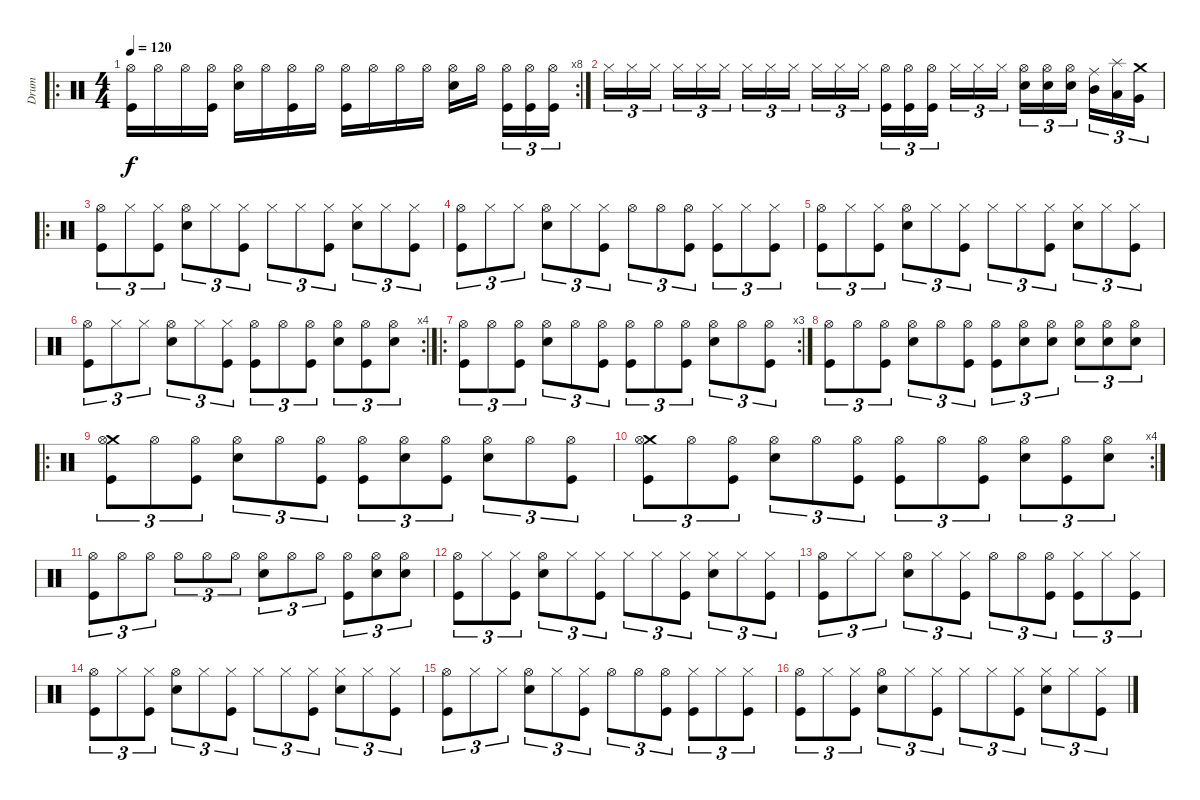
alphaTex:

\track ("Drum" "Drum") {instrument percussion}
\staff {score}
\articulation defaults
\ro
\rc 8
\ts (4 4)
\tempo 120
\clef neutral
\ks c
("Hi-Hat (open)" "Kick (hit)").16{dy f} "Hi-Hat (open)".16 "Hi-Hat (open)".16 ("Hi-Hat (open)" "Kick (hit)").16 ("Hi-Hat (open)" "Electric Snare (hit)").16 "Hi-Hat (open)".16 ("Hi-Hat (open)" "Kick (hit)").16 "Hi-Hat (open)".16 ("Hi-Hat (open)" "Kick (hit)").16 "Hi-Hat (open)".16 "Hi-Hat (open)".16 "Hi-Hat (open)".16 ("Hi-Hat (open)" "Electric Snare (hit)").16 "Hi-Hat (open)".16 ("Hi-Hat (open)" "Kick (hit)").16{tu (3 2)} ("Hi-Hat (open)" "Kick (hit)").16{tu (3 2)} ("Hi-Hat (open)" "Kick (hit)").16{tu (3 2)} |
"Hi-Hat (closed)".16{tu (3 2)} "Hi-Hat (closed)".16{tu (3 2)} "Hi-Hat (closed)".16{tu (3 2)} "Hi-Hat (closed)".16{tu (3 2)} "Hi-Hat (closed)".16{tu (3 2)} "Hi-Hat (closed)".16{tu (3 2)} "Hi-Hat (closed)".16{tu (3 2)} "Hi-Hat (closed)".16{tu (3 2)} "Hi-Hat (closed)".16{tu (3 2)} "Hi-Hat (closed)".16{tu (3 2)} "Hi-Hat (closed)".16{tu (3 2)} "Hi-Hat (closed)".16{tu (3 2)} ("Hi-Hat (open)" "Kick (hit)").16{tu (3 2)} ("Hi-Hat (open)" "Kick (hit)").16{tu (3 2)} ("Hi-Hat (open)" "Kick (hit)").16{tu (3 2)} "Hi-Hat (closed)".16{tu (3 2)} "Hi-Hat (closed)".16{tu (3 2)} "Hi-Hat (closed)".16{tu (3 2)} ("Hi-Hat (open)" "Electric Snare (hit)").16{tu (3 2)} ("Hi-Hat (open)" "Electric Snare (hit)").16{tu (3 2)} ("Hi-Hat (open)" "Electric Snare (hit)").16{tu (3 2)} ("Ride (middle)" "Mid Tom (hit)").16{tu (3 2)} ("Splash (hit)" "Low Tom (hit)").16{tu (3 2)} ("Crash medium (hit)" "Very Low Tom (hit)").16{tu (3 2)} |
\ro
("Hi-Hat (open)" "Kick (hit)").8{tu (3 2)} "Hi-Hat (closed)".8{tu (3 2)} ("Hi-Hat (closed)" "Kick (hit)").8{tu (3 2)} ("Hi-Hat (open)" "Electric Snare (hit)").8{tu (3 2)} "Hi-Hat (closed)".8{tu (3 2)} ("Hi-Hat (closed)" "Kick (hit)").8{tu (3 2)} "Hi-Hat (closed)".8{tu (3 2)} "Hi-Hat (closed)".8{tu (3 2)} ("Hi-Hat (closed)" "Kick (hit)").8{tu (3 2)} ("Hi-Hat (closed)" "Electric Snare (hit)").8{tu (3 2)} "Hi-Hat (closed)".8{tu (3 2)} ("Hi-Hat (closed)" "Kick (hit)").8{tu (3 2)} |
("Hi-Hat (open)" "Kick (hit)").8{tu (3 2)} "Hi-Hat (closed)".8{tu (3 2)} "Hi-Hat (closed)".8{tu (3 2)} ("Hi-Hat (open)" "Electric Snare (hit)").8{tu (3 2)} "Hi-Hat (closed)".8{tu (3 2)} ("Hi-Hat (closed)" "Kick (hit)").8{tu (3 2)} "Hi-Hat (open)".8{tu (3 2)} "Hi-Hat (open)".8{tu (3 2)} ("Hi-Hat (open)" "Kick (hit)").8{tu (3 2)} ("Hi-Hat (closed)" "Kick (hit)").8{tu (3 2)} "Hi-Hat (closed)".8{tu (3 2)} ("Hi-Hat (closed)" "Kick (hit)").8{tu (3 2)} |
("Hi-Hat (open)" "Kick (hit)").8{tu (3 2)} "Hi-Hat (closed)".8{tu (3 2)} ("Hi-Hat (closed)" "Kick (hit)").8{tu (3 2)} ("Hi-Hat (open)" "Electric Snare (hit)").8{tu (3 2)} "Hi-Hat (closed)".8{tu (3 2)} ("Hi-Hat (closed)" "Kick (hit)").8{tu (3 2)} "Hi-Hat (closed)".8{tu (3 2)} "Hi-Hat (closed)".8{tu (3 2)} ("Hi-Hat (closed)" "Kick (hit)").8{tu (3 2)} ("Hi-Hat (closed)" "Electric Snare (hit)").8{tu (3 2)} "Hi-Hat (closed)".8{tu (3 2)} ("Hi-Hat (closed)" "Kick (hit)").8{tu (3 2)} |
\rc 4
("Hi-Hat (open)" "Kick (hit)").8{tu (3 2)} "Hi-Hat (closed)".8{tu (3 2)} "Hi-Hat (closed)".8{tu (3 2)} ("Hi-Hat (open)" "Electric Snare (hit)").8{tu (3 2)} "Hi-Hat (closed)".8{tu (3 2)} ("Hi-Hat (closed)" "Kick (hit)").8{tu (3 2)} ("Hi-Hat (open)" "Kick (hit)").8{tu (3 2)} "Hi-Hat (open)".8{tu (3 2)} ("Hi-Hat (open)" "Kick (hit)").8{tu (3 2)} ("Hi-Hat (open)" "Electric Snare (hit)").8{tu (3 2)} ("Hi-Hat (open)" "Kick (hit)").8{tu (3 2)} ("Hi-Hat (open)" "Electric Snare (hit)").8{tu (3 2)} |
\ro
\rc 3
("Hi-Hat (open)" "Kick (hit)").8{tu (3 2)} "Hi-Hat (open)".8{tu (3 2)} ("Hi-Hat (open)" "Kick (hit)").8{tu (3 2)} ("Hi-Hat (open)" "Electric Snare (hit)").8{tu (3 2)} "Hi-Hat (open)".8{tu (3 2)} ("Hi-Hat (open)" "Kick (hit)").8{tu (3 2)} ("Hi-Hat (open)" "Kick (hit)").8{tu (3 2)} "Hi-Hat (open)".8{tu (3 2)} ("Hi-Hat (open)" "Kick (hit)").8{tu (3 2)} ("Hi-Hat (open)" "Electric Snare (hit)").8{tu (3 2)} "Hi-Hat (open)".8{tu (3 2)} ("Hi-Hat (open)" "Kick (hit)").8{tu (3 2)} |
("Hi-Hat (open)" "Kick (hit)").8{tu (3 2)} "Hi-Hat (open)".8{tu (3 2)} ("Hi-Hat (open)" "Kick (hit)").8{tu (3 2)} ("Hi-Hat (open)" "Electric Snare (hit)").8{tu (3 2)} "Hi-Hat (open)".8{tu (3 2)} ("Hi-Hat (open)" "Kick (hit)").8{tu (3 2)} ("Hi-Hat (open)" "Kick (hit)").8{tu (3 2)} ("Hi-Hat (open)" "Electric Snare (hit)").8{tu (3 2)} ("Hi-Hat (open)" "Electric Snare (hit)").8{tu (3 2)} ("Hi-Hat (open)" "Electric Snare (hit)").8{tu (3 2)} ("Hi-Hat (open)" "Electric Snare (hit)").8{tu (3 2)} ("Hi-Hat (open)" "Electric Snare (hit)").8{tu (3 2)} |
\ro
("Crash medium (hit)" "Hi-Hat (open)" "Kick (hit)").8{tu (3 2)} "Hi-Hat (open)".8{tu (3 2)} ("Hi-Hat (open)" "Kick (hit)").8{tu (3 2)} ("Hi-Hat (open)" "Electric Snare (hit)").8{tu (3 2)} "Hi-Hat (open)".8{tu (3 2)} ("Hi-Hat (open)" "Kick (hit)").8{tu (3 2)} ("Hi-Hat (open)" "Kick (hit)").8{tu (3 2)} ("Hi-Hat (open)" "Electric Snare (hit)").8{tu (3 2)} ("Hi-Hat (open)" "Kick (hit)").8{tu (3 2)} ("Hi-Hat (open)" "Electric Snare (hit)").8{tu (3 2)} "Hi-Hat (open)".8{tu (3 2)} ("Hi-Hat (open)" "Kick (hit)").8{tu (3 2)} |
\rc 4
("Crash medium (hit)" "Hi-Hat (open)" "Kick (hit)").8{tu (3 2)} "Hi-Hat (open)".8{tu (3 2)} ("Hi-Hat (open)" "Kick (hit)").8{tu (3 2)} ("Hi-Hat (open)" "Electric Snare (hit)").8{tu (3 2)} "Hi-Hat (open)".8{tu (3 2)} ("Hi-Hat (open)" "Kick (hit)").8{tu (3 2)} ("Hi-Hat (open)" "Kick (hit)").8{tu (3 2)} "Hi-Hat (open)".8{tu (3 2)} ("Hi-Hat (open)" "Kick (hit)").8{tu (3 2)} ("Hi-Hat (open)" "Electric Snare (hit)").8{tu (3 2)} ("Hi-Hat (open)" "Kick (hit)").8{tu (3 2)} ("Hi-Hat (open)" "Electric Snare (hit)").8{tu (3 2)} |
("Hi-Hat (open)" "Kick (hit)").8{tu (3 2)} "Hi-Hat (open)".8{tu (3 2)} "Hi-Hat (open)".8{tu (3 2)} "Hi-Hat (open)".8{tu (3 2)} "Hi-Hat (open)".8{tu (3 2)} "Hi-Hat (open)".8{tu (3 2)} ("Hi-Hat (open)" "Electric Snare (hit)").8{tu (3 2)} "Hi-Hat (open)".8{tu (3 2)} "Hi-Hat (open)".8{tu (3 2)} ("Hi-Hat (open)" "Kick (hit)").8{tu (3 2)} ("Hi-Hat (open)" "Electric Snare (hit)").8{tu (3 2)} ("Hi-Hat (open)" "Electric Snare (hit)").8{tu (3 2)} |
("Hi-Hat (open)" "Kick (hit)").8{tu (3 2)} "Hi-Hat (closed)".8{tu (3 2)} ("Hi-Hat (closed)" "Kick (hit)").8{tu (3 2)} ("Hi-Hat (open)" "Electric Snare (hit)").8{tu (3 2)} "Hi-Hat (closed)".8{tu (3 2)} ("Hi-Hat (closed)" "Kick (hit)").8{tu (3 2)} "Hi-Hat (closed)".8{tu (3 2)} "Hi-Hat (closed)".8{tu (3 2)} ("Hi-Hat (closed)" "Kick (hit)").8{tu (3 2)} ("Hi-Hat (closed)" "Electric Snare (hit)").8{tu (3 2)} "Hi-Hat (closed)".8{tu (3 2)} ("Hi-Hat (closed)" "Kick (hit)").8{tu (3 2)} |
("Hi-Hat (open)" "Kick (hit)").8{tu (3 2)} "Hi-Hat (closed)".8{tu (3 2)} "Hi-Hat (closed)".8{tu (3 2)} ("Hi-Hat (open)" "Electric Snare (hit)").8{tu (3 2)} "Hi-Hat (closed)".8{tu (3 2)} ("Hi-Hat (closed)" "Kick (hit)").8{tu (3 2)} "Hi-Hat (open)".8{tu (3 2)} "Hi-Hat (open)".8{tu (3 2)} ("Hi-Hat (open)" "Kick (hit)").8{tu (3 2)} ("Hi-Hat (closed)" "Kick (hit)").8{tu (3 2)} "Hi-Hat (closed)".8{tu (3 2)} ("Hi-Hat (closed)" "Kick (hit)").8{tu (3 2)} |
("Hi-Hat (open)" "Kick (hit)").8{tu (3 2)} "Hi-Hat (closed)".8{tu (3 2)} ("Hi-Hat (closed)" "Kick (hit)").8{tu (3 2)} ("Hi-Hat (open)" "Electric Snare (hit)").8{tu (3 2)} "Hi-Hat (closed)".8{tu (3 2)} ("Hi-Hat (closed)" "Kick (hit)").8{tu (3 2)} "Hi-Hat (closed)".8{tu (3 2)} "Hi-Hat (closed)".8{tu (3 2)} ("Hi-Hat (closed)" "Kick (hit)").8{tu (3 2)} ("Hi-Hat (closed)" "Electric Snare (hit)").8{tu (3 2)} "Hi-Hat (closed)".8{tu (3 2)} ("Hi-Hat (closed)" "Kick (hit)").8{tu (3 2)} |
("Hi-Hat (open)" "Kick (hit)").8{tu (3 2)} "Hi-Hat (closed)".8{tu (3 2)} "Hi-Hat (closed)".8{tu (3 2)} ("Hi-Hat (open)" "Electric Snare (hit)").8{tu (3 2)} "Hi-Hat (closed)".8{tu (3 2)} ("Hi-Hat (closed)" "Kick (hit)").8{tu (3 2)} "Hi-Hat (open)".8{tu (3 2)} "Hi-Hat (open)".8{tu (3 2)} ("Hi-Hat (open)" "Kick (hit)").8{tu (3 2)} ("Hi-Hat (closed)" "Kick (hit)").8{tu (3 2)} "Hi-Hat (closed)".8{tu (3 2)} ("Hi-Hat (closed)" "Kick (hit)").8{tu (3 2)} |
("Hi-Hat (open)" "Kick (hit)").8{tu (3 2)} "Hi-Hat (closed)".8{tu (3 2)} ("Hi-Hat (closed)" "Kick (hit)").8{tu (3 2)} ("Hi-Hat (open)" "Electric Snare (hit)").8{tu (3 2)} "Hi-Hat (closed)".8{tu (3 2)} ("Hi-Hat (closed)" "Kick (hit)").8{tu (3 2)} "Hi-Hat (closed)".8{tu (3 2)} "Hi-Hat (closed)".8{tu (3 2)} ("Hi-Hat (closed)" "Kick (hit)").8{tu (3 2)} ("Hi-Hat (closed)" "Electric Snare (hit)").8{tu (3 2)} "Hi-Hat (closed)".8{tu (3 2)} ("Hi-Hat (closed)" "Kick (hit)").8{tu (3 2)}
